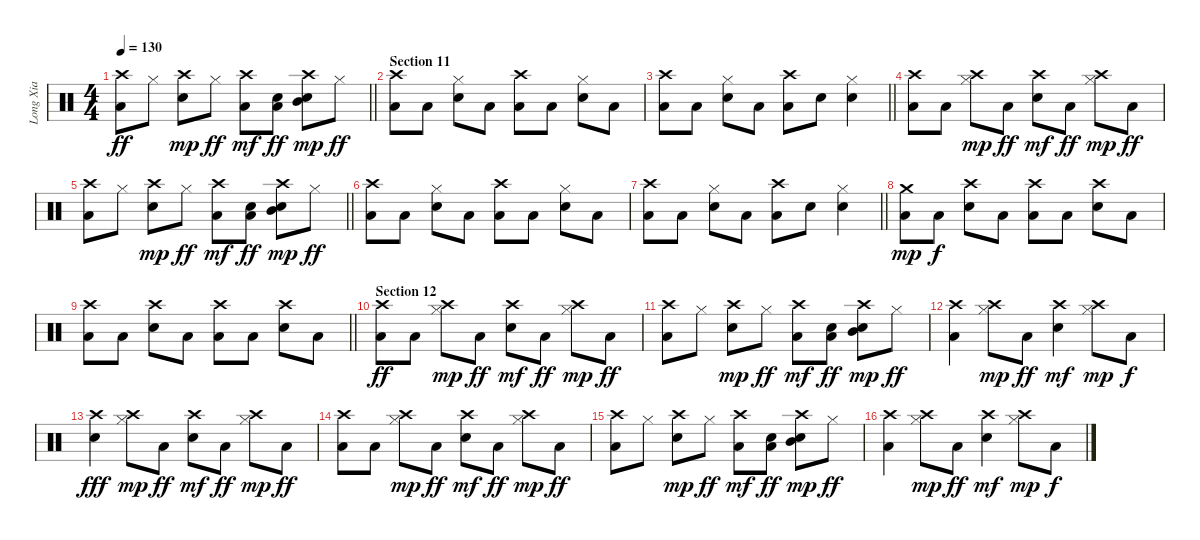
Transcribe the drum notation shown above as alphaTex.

\track ("Long Xia" "Long Xia") {instrument percussion}
\staff {score}
\articulation defaults
\ts (4 4)
\tempo 130
\clef neutral
\barLineRight lightlight
\ks c
("Low Floor Tom (hit)" "Crash high (hit)").8{dy ff} "Hi-Hat (closed)".8 ("Electric Snare (hit)" "Crash high (hit)").8{dy mp} "Hi-Hat (closed)".8{dy ff} ("Low Floor Tom (hit)" "Crash high (hit)").8{dy mf} ("Electric Snare (hit)" "Low Tom (hit)").8{dy ff} ("Electric Snare (hit)" "Mid Tom (hit)" "Crash high (hit)").8{dy mp} "Hi-Hat (closed)".8{dy ff} |
\section ("" "Section 11")
("Low Floor Tom (hit)" "Crash high (hit)").8 "Low Floor Tom (hit)".8 ("Electric Snare (hit)" "Hi-Hat (closed)").8 "Low Floor Tom (hit)".8 ("Low Floor Tom (hit)" "Crash high (hit)").8 "Low Floor Tom (hit)".8 ("Electric Snare (hit)" "Hi-Hat (closed)").8 "Low Floor Tom (hit)".8 |
\barLineRight lightlight
("Low Floor Tom (hit)" "Crash high (hit)").8 "Low Floor Tom (hit)".8 ("Electric Snare (hit)" "Hi-Hat (closed)").8 "Low Floor Tom (hit)".8 ("Low Floor Tom (hit)" "Crash high (hit)").8 "Electric Snare (hit)".8 ("Electric Snare (hit)" "Hi-Hat (closed)").4 |
("Low Floor Tom (hit)" "Crash high (hit)").8 "Low Floor Tom (hit)".8 ("Hi-Hat (closed)" "Crash high (hit)").8{dy mp} "Low Floor Tom (hit)".8{dy ff} ("Electric Snare (hit)" "Crash high (hit)").8{dy mf} "Low Floor Tom (hit)".8{dy ff} ("Hi-Hat (closed)" "Crash high (hit)").8{dy mp} "Low Floor Tom (hit)".8{dy ff} |
\barLineRight lightlight
("Low Floor Tom (hit)" "Crash high (hit)").8 "Hi-Hat (closed)".8 ("Electric Snare (hit)" "Crash high (hit)").8{dy mp} "Hi-Hat (closed)".8{dy ff} ("Low Floor Tom (hit)" "Crash high (hit)").8{dy mf} ("Electric Snare (hit)" "Low Tom (hit)").8{dy ff} ("Electric Snare (hit)" "Mid Tom (hit)" "Crash high (hit)").8{dy mp} "Hi-Hat (closed)".8{dy ff} |
("Low Floor Tom (hit)" "Crash high (hit)").8 "Low Floor Tom (hit)".8 ("Electric Snare (hit)" "Hi-Hat (closed)").8 "Low Floor Tom (hit)".8 ("Low Floor Tom (hit)" "Crash high (hit)").8 "Low Floor Tom (hit)".8 ("Electric Snare (hit)" "Hi-Hat (closed)").8 "Low Floor Tom (hit)".8 |
\barLineRight lightlight
("Low Floor Tom (hit)" "Crash high (hit)").8 "Low Floor Tom (hit)".8 ("Electric Snare (hit)" "Hi-Hat (closed)").8 "Low Floor Tom (hit)".8 ("Low Floor Tom (hit)" "Crash high (hit)").8 "Electric Snare (hit)".8 ("Electric Snare (hit)" "Hi-Hat (closed)").4 |
("Low Floor Tom (hit)" "Crash medium (hit)").8{dy mp} "Low Floor Tom (hit)".8{dy f} ("Electric Snare (hit)" "Crash high (hit)").8 "Low Floor Tom (hit)".8 ("Low Floor Tom (hit)" "Crash high (hit)").8 "Low Floor Tom (hit)".8 ("Electric Snare (hit)" "Crash high (hit)").8 "Low Floor Tom (hit)".8 |
\barLineRight lightlight
("Low Floor Tom (hit)" "Crash high (hit)").8 "Low Floor Tom (hit)".8 ("Electric Snare (hit)" "Crash high (hit)").8 "Low Floor Tom (hit)".8 ("Low Floor Tom (hit)" "Crash high (hit)").8 "Low Floor Tom (hit)".8 ("Electric Snare (hit)" "Crash high (hit)").8 "Low Floor Tom (hit)".8 |
\section ("" "Section 12")
("Low Floor Tom (hit)" "Crash high (hit)").8{dy ff} "Low Floor Tom (hit)".8 ("Hi-Hat (closed)" "Crash high (hit)").8{dy mp} "Low Floor Tom (hit)".8{dy ff} ("Electric Snare (hit)" "Crash high (hit)").8{dy mf} "Low Floor Tom (hit)".8{dy ff} ("Hi-Hat (closed)" "Crash high (hit)").8{dy mp} "Low Floor Tom (hit)".8{dy ff} |
("Low Floor Tom (hit)" "Crash high (hit)").8 "Hi-Hat (closed)".8 ("Electric Snare (hit)" "Crash high (hit)").8{dy mp} "Hi-Hat (closed)".8{dy ff} ("Low Floor Tom (hit)" "Crash high (hit)").8{dy mf} ("Electric Snare (hit)" "Low Tom (hit)").8{dy ff} ("Electric Snare (hit)" "Mid Tom (hit)" "Crash high (hit)").8{dy mp} "Hi-Hat (closed)".8{dy ff} |
("Low Floor Tom (hit)" "Crash high (hit)").4 ("Hi-Hat (closed)" "Crash high (hit)").8{dy mp} "Low Floor Tom (hit)".8{dy ff} ("Electric Snare (hit)" "Crash high (hit)").4{dy mf} ("Hi-Hat (closed)" "Crash high (hit)").8{dy mp} "Low Floor Tom (hit)".8{dy f} |
("Electric Snare (hit)" "Crash high (hit)").4{dy fff} ("Hi-Hat (closed)" "Crash high (hit)").8{dy mp} "Low Floor Tom (hit)".8{dy ff} ("Electric Snare (hit)" "Crash high (hit)").8{dy mf} "Low Floor Tom (hit)".8{dy ff} ("Hi-Hat (closed)" "Crash high (hit)").8{dy mp} "Low Floor Tom (hit)".8{dy ff} |
("Low Floor Tom (hit)" "Crash high (hit)").8 "Low Floor Tom (hit)".8 ("Hi-Hat (closed)" "Crash high (hit)").8{dy mp} "Low Floor Tom (hit)".8{dy ff} ("Electric Snare (hit)" "Crash high (hit)").8{dy mf} "Low Floor Tom (hit)".8{dy ff} ("Hi-Hat (closed)" "Crash high (hit)").8{dy mp} "Low Floor Tom (hit)".8{dy ff} |
("Low Floor Tom (hit)" "Crash high (hit)").8 "Hi-Hat (closed)".8 ("Electric Snare (hit)" "Crash high (hit)").8{dy mp} "Hi-Hat (closed)".8{dy ff} ("Low Floor Tom (hit)" "Crash high (hit)").8{dy mf} ("Electric Snare (hit)" "Low Tom (hit)").8{dy ff} ("Electric Snare (hit)" "Mid Tom (hit)" "Crash high (hit)").8{dy mp} "Hi-Hat (closed)".8{dy ff} |
("Low Floor Tom (hit)" "Crash high (hit)").4 ("Hi-Hat (closed)" "Crash high (hit)").8{dy mp} "Low Floor Tom (hit)".8{dy ff} ("Electric Snare (hit)" "Crash high (hit)").4{dy mf} ("Hi-Hat (closed)" "Crash high (hit)").8{dy mp} "Low Floor Tom (hit)".8{dy f}
